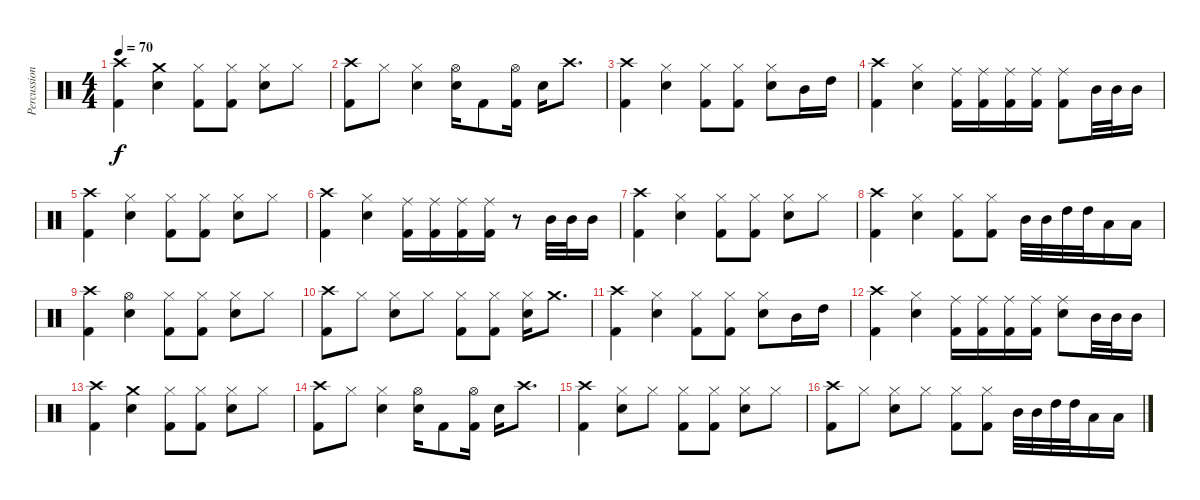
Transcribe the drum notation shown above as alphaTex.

\track ("Percussioni" "Percussion") {instrument percussion}
\staff {score}
\articulation defaults
\ts (4 4)
\tempo 70
\clef neutral
\ks c
("Crash high (hit)" "Kick (hit) 2").4{dy f} ("Crash medium (hit)" "Snare (hit) 2").4 ("Hi-Hat (closed)" "Kick (hit) 2").8 ("Hi-Hat (closed)" "Kick (hit) 2").8 ("Hi-Hat (closed)" "Snare (hit) 2").8 "Hi-Hat (closed)".8 |
("Crash high (hit)" "Kick (hit) 2").8 "Hi-Hat (closed)".8 ("Hi-Hat (closed)" "Snare (hit) 2").4 ("Hi-Hat (open)" "Snare (hit) 2").16 "Kick (hit) 2".8 ("Hi-Hat (open)" "Kick (hit) 2").16 "Snare (hit) 2".16 "Crash high (hit)".8{d} |
("Crash high (hit)" "Kick (hit) 2").4 ("Hi-Hat (closed)" "Snare (hit) 2").4 ("Hi-Hat (closed)" "Kick (hit) 2").8 ("Hi-Hat (closed)" "Kick (hit) 2").8 ("Hi-Hat (closed)" "Snare (hit) 2").8 "Mid Tom (hit)".16 "High Tom (hit)".16 |
("Crash high (hit)" "Kick (hit) 2").4 ("Hi-Hat (closed)" "Snare (hit) 2").4 ("Ride (middle)" "Kick (hit) 2").16 ("Ride (middle)" "Kick (hit) 2").16 ("Ride (middle)" "Kick (hit) 2").16 ("Ride (middle)" "Kick (hit) 2").16 ("Ride (middle)" "Kick (hit) 2").8 "Mid Tom (hit)".32 "Mid Tom (hit)".32 "Mid Tom (hit)".16 |
("Crash high (hit)" "Kick (hit) 2").4 ("Hi-Hat (closed)" "Snare (hit) 2").4 ("Hi-Hat (closed)" "Kick (hit) 2").8 ("Hi-Hat (closed)" "Kick (hit) 2").8 ("Hi-Hat (closed)" "Snare (hit) 2").8 "Hi-Hat (closed)".8 |
("Crash high (hit)" "Kick (hit) 2").4 ("Hi-Hat (closed)" "Snare (hit) 2").4 ("Ride (middle)" "Kick (hit) 2").16 ("Ride (middle)" "Kick (hit) 2").16 ("Ride (middle)" "Kick (hit) 2").16 ("Ride (middle)" "Kick (hit) 2").16 r.8 "Mid Tom (hit)".32 "Mid Tom (hit)".32 "Mid Tom (hit)".16 |
("Crash high (hit)" "Kick (hit) 2").4 ("Hi-Hat (closed)" "Snare (hit) 2").4 ("Hi-Hat (closed)" "Kick (hit) 2").8 ("Hi-Hat (closed)" "Kick (hit) 2").8 ("Hi-Hat (closed)" "Snare (hit) 2").8 "Hi-Hat (closed)".8 |
("Crash high (hit)" "Kick (hit) 2").4 ("Hi-Hat (closed)" "Snare (hit) 2").4 ("Hi-Hat (closed)" "Kick (hit) 2").8 ("Hi-Hat (closed)" "Kick (hit) 2").8 "Mid Tom (hit)".32 "Mid Tom (hit)".32 "High Tom (hit)".32 "High Tom (hit)".32 "Low Tom (hit)".16 "Low Tom (hit)".16 |
("Crash high (hit)" "Kick (hit) 2").4 ("Hi-Hat (open)" "Snare (hit) 2").4 ("Hi-Hat (closed)" "Kick (hit) 2").8 ("Hi-Hat (closed)" "Kick (hit) 2").8 ("Hi-Hat (closed)" "Snare (hit) 2").8 "Hi-Hat (closed)".8 |
("Crash high (hit)" "Kick (hit) 2").8 "Hi-Hat (closed)".8 ("Hi-Hat (closed)" "Snare (hit) 2").8 "Hi-Hat (closed)".8 ("Hi-Hat (closed)" "Kick (hit) 2").8 ("Hi-Hat (closed)" "Kick (hit) 2").8 ("Hi-Hat (closed)" "Snare (hit) 2").16 "Crash medium (hit)".8{d} |
("Crash high (hit)" "Kick (hit) 2").4 ("Hi-Hat (closed)" "Snare (hit) 2").4 ("Hi-Hat (closed)" "Kick (hit) 2").8 ("Hi-Hat (closed)" "Kick (hit) 2").8 ("Hi-Hat (closed)" "Snare (hit) 2").8 "Mid Tom (hit)".16 "High Tom (hit)".16 |
("Crash high (hit)" "Kick (hit) 2").4 ("Hi-Hat (closed)" "Snare (hit) 2").4 ("Ride (middle)" "Kick (hit) 2").16 ("Ride (middle)" "Kick (hit) 2").16 ("Ride (middle)" "Kick (hit) 2").16 ("Ride (middle)" "Kick (hit) 2").16 ("Ride (middle)" "Snare (hit) 2").8 "Mid Tom (hit)".32 "Mid Tom (hit)".32 "Mid Tom (hit)".16 |
("Crash high (hit)" "Kick (hit) 2").4 ("Crash medium (hit)" "Snare (hit) 2").4 ("Hi-Hat (closed)" "Kick (hit) 2").8 ("Hi-Hat (closed)" "Kick (hit) 2").8 ("Hi-Hat (closed)" "Snare (hit) 2").8 "Hi-Hat (closed)".8 |
("Crash high (hit)" "Kick (hit) 2").8 "Hi-Hat (closed)".8 ("Hi-Hat (closed)" "Snare (hit) 2").4 ("Hi-Hat (open)" "Snare (hit) 2").16 "Kick (hit) 2".8 ("Hi-Hat (open)" "Kick (hit) 2").16 "Snare (hit) 2".16 "Crash high (hit)".8{d} |
("Crash high (hit)" "Kick (hit) 2").4 ("Hi-Hat (closed)" "Snare (hit) 2").8 "Hi-Hat (closed)".8 ("Hi-Hat (closed)" "Kick (hit) 2").8 ("Hi-Hat (closed)" "Kick (hit) 2").8 ("Hi-Hat (closed)" "Snare (hit) 2").8 "Hi-Hat (closed)".8 |
("Crash high (hit)" "Kick (hit) 2").8 "Hi-Hat (closed)".8 ("Hi-Hat (closed)" "Snare (hit) 2").8 "Hi-Hat (closed)".8 ("Hi-Hat (closed)" "Kick (hit) 2").8 ("Hi-Hat (closed)" "Kick (hit) 2").8 "Mid Tom (hit)".32 "Mid Tom (hit)".32 "High Tom (hit)".32 "High Tom (hit)".32 "Low Tom (hit)".16 "Low Tom (hit)".16
